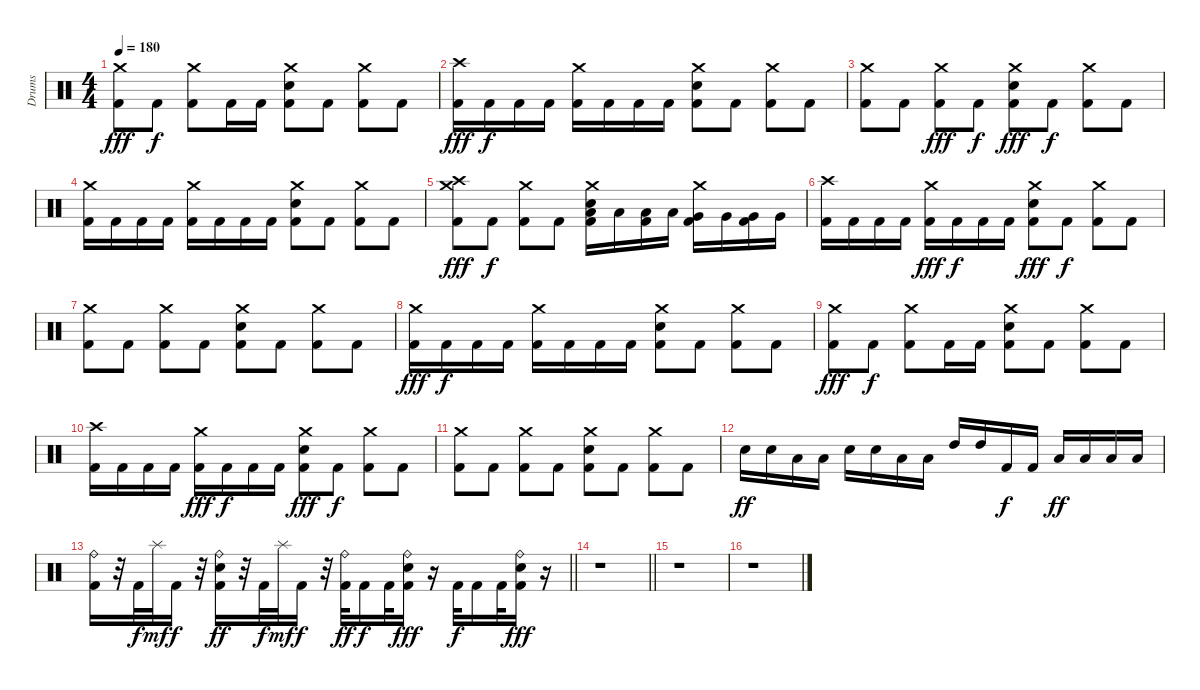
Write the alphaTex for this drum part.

\track ("Drums" "Drums") {instrument percussion}
\staff {score}
\articulation defaults
\ts (4 4)
\tempo 180
\clef neutral
\ks c
("Crash medium (hit)" "Kick (hit) 2").8{dy fff} "Kick (hit) 2".8{dy f} ("Crash medium (hit)" "Kick (hit) 2").8 "Kick (hit) 2".16 "Kick (hit) 2".16 ("Crash medium (hit)" "Snare (hit) 2" "Kick (hit) 2").8 "Kick (hit) 2".8 ("Crash medium (hit)" "Kick (hit) 2").8 "Kick (hit) 2".8 |
("Kick (hit) 2" "Crash high (hit)").16{dy fff} "Kick (hit) 2".16{dy f} "Kick (hit) 2".16 "Kick (hit) 2".16 ("Crash medium (hit)" "Kick (hit) 2").16 "Kick (hit) 2".16 "Kick (hit) 2".16 "Kick (hit) 2".16 ("Crash medium (hit)" "Snare (hit) 2" "Kick (hit) 2").8 "Kick (hit) 2".8 ("Crash medium (hit)" "Kick (hit) 2").8 "Kick (hit) 2".8 |
("Crash medium (hit)" "Kick (hit) 2").8 "Kick (hit) 2".8 ("Crash medium (hit)" "Kick (hit) 2").8{dy fff} "Kick (hit) 2".8{dy f} ("Snare (hit) 2" "Crash medium (hit)" "Kick (hit) 2").8{dy fff} "Kick (hit) 2".8{dy f} ("Crash medium (hit)" "Kick (hit) 2").8 "Kick (hit) 2".8 |
("Crash medium (hit)" "Kick (hit) 2").16 "Kick (hit) 2".16 "Kick (hit) 2".16 "Kick (hit) 2".16 ("Crash medium (hit)" "Kick (hit) 2").16 "Kick (hit) 2".16 "Kick (hit) 2".16 "Kick (hit) 2".16 ("Crash medium (hit)" "Snare (hit) 2" "Kick (hit) 2").8 "Kick (hit) 2".8 ("Crash medium (hit)" "Kick (hit) 2").8 "Kick (hit) 2".8 |
("Crash medium (hit)" "Kick (hit) 2" "Crash high (hit)").8{dy fff} "Kick (hit) 2".8{dy f} ("Crash medium (hit)" "Kick (hit) 2").8 "Kick (hit) 2".8 ("Low Tom (hit)" "Kick (hit) 2" "Crash medium (hit)" "Snare (hit) 2").16 "Low Tom (hit)".16 ("Low Tom (hit)" "Kick (hit) 2").16 "Low Tom (hit)".16 ("Very Low Tom (hit)" "Kick (hit) 2" "Crash medium (hit)").16 "Very Low Tom (hit)".16 ("Very Low Tom (hit)" "Kick (hit) 2").16 "Very Low Tom (hit)".16 |
("Crash high (hit)" "Kick (hit) 2").16 "Kick (hit) 2".16 "Kick (hit) 2".16 "Kick (hit) 2".16 ("Crash medium (hit)" "Kick (hit) 2").16{dy fff} "Kick (hit) 2".16{dy f} "Kick (hit) 2".16 "Kick (hit) 2".16 ("Snare (hit) 2" "Crash medium (hit)" "Kick (hit) 2").8{dy fff} "Kick (hit) 2".8{dy f} ("Crash medium (hit)" "Kick (hit) 2").8 "Kick (hit) 2".8 |
("Crash medium (hit)" "Kick (hit) 2").8 "Kick (hit) 2".8 ("Crash medium (hit)" "Kick (hit) 2").8 "Kick (hit) 2".8 ("Crash medium (hit)" "Snare (hit) 2" "Kick (hit) 2").8 "Kick (hit) 2".8 ("Crash medium (hit)" "Kick (hit) 2").8 "Kick (hit) 2".8 |
("Crash medium (hit)" "Kick (hit) 2").16{dy fff} "Kick (hit) 2".16{dy f} "Kick (hit) 2".16 "Kick (hit) 2".16 ("Crash medium (hit)" "Kick (hit) 2").16 "Kick (hit) 2".16 "Kick (hit) 2".16 "Kick (hit) 2".16 ("Crash medium (hit)" "Snare (hit) 2" "Kick (hit) 2").8 "Kick (hit) 2".8 ("Crash medium (hit)" "Kick (hit) 2").8 "Kick (hit) 2".8 |
("Kick (hit) 2" "Crash medium (hit)").8{dy fff} "Kick (hit) 2".8{dy f} ("Crash medium (hit)" "Kick (hit) 2").8 "Kick (hit) 2".16 "Kick (hit) 2".16 ("Crash medium (hit)" "Snare (hit) 2" "Kick (hit) 2").8 "Kick (hit) 2".8 ("Crash medium (hit)" "Kick (hit) 2").8 "Kick (hit) 2".8 |
("Crash high (hit)" "Kick (hit) 2").16 "Kick (hit) 2".16 "Kick (hit) 2".16 "Kick (hit) 2".16 ("Crash medium (hit)" "Kick (hit) 2").16{dy fff} "Kick (hit) 2".16{dy f} "Kick (hit) 2".16 "Kick (hit) 2".16 ("Snare (hit) 2" "Crash medium (hit)" "Kick (hit) 2").8{dy fff} "Kick (hit) 2".8{dy f} ("Crash medium (hit)" "Kick (hit) 2").8 "Kick (hit) 2".8 |
("Crash medium (hit)" "Kick (hit) 2").8 "Kick (hit) 2".8 ("Crash medium (hit)" "Kick (hit) 2").8 "Kick (hit) 2".8 ("Crash medium (hit)" "Snare (hit) 2" "Kick (hit) 2").8 "Kick (hit) 2".8 ("Crash medium (hit)" "Kick (hit) 2").8 "Kick (hit) 2".8 |
"Snare (hit) 2".16{dy ff} "Snare (hit) 2".16 "Low Tom (hit)".16 "Low Tom (hit)".16 "Snare (hit) 2".16 "Snare (hit) 2".16 "Low Tom (hit)".16 "Low Tom (hit)".16 "High Tom (hit)".16 "High Tom (hit)".16 "Kick (hit) 2".16{dy f} "Kick (hit) 2".16 "Low Tom (hit)".16{dy ff} "Low Tom (hit)".16 "Low Tom (hit)".16 "Low Tom (hit)".16 |
\barLineRight lightlight
("Kick (hit) 2" "Ride (bell)").16 r.32 "Kick (hit) 2".32{dy f} "Splash (hit)".32{dy mf} "Kick (hit) 2".16{dy f} r.32 ("Kick (hit) 2" "Hand Clap (hit)" "Ride (bell)").16{dy ff} r.32 "Kick (hit) 2".32{dy f} "Splash (hit)".32{dy mf} "Kick (hit) 2".16{dy f} r.32 ("Kick (hit) 2" "Ride (bell)").32{dy ff} "Kick (hit) 2".16{dy f} "Kick (hit) 2".32 ("Snare (hit) 2" "Ride (bell)" "Kick (hit) 2").16{dy fff} r.16 "Kick (hit) 2".32{dy f} "Kick (hit) 2".16 "Kick (hit) 2".32 ("Snare (hit) 2" "Ride (bell)" "Kick (hit) 2").16{dy fff} r.16 |
\barLineRight lightlight
r.1 |
r.1 |
r.1
